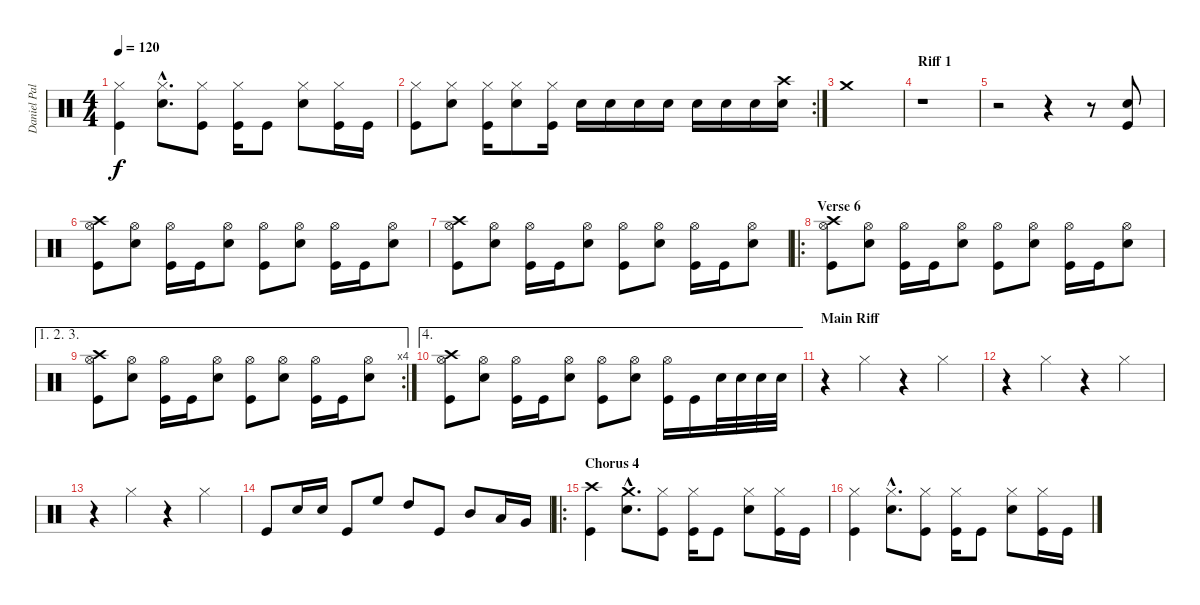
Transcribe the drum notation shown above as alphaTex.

\track ("Daniel Pal" "Daniel Pal") {instrument percussion}
\staff {score}
\articulation defaults
\ts (4 4)
\tempo 120
\clef neutral
\ks c
("Hi-Hat (closed)" "Kick (hit)").4{dy f} ("Hi-Hat (closed)"{hac} "Electric Snare (hit)"{hac}).8{d} ("Hi-Hat (closed)" "Kick (hit)").8 ("Hi-Hat (closed)" "Kick (hit)").16 "Kick (hit)".8 ("Hi-Hat (closed)" "Electric Snare (hit)").8 ("Hi-Hat (closed)" "Kick (hit)").16 "Kick (hit)".16 |
\rc 2
("Hi-Hat (closed)" "Kick (hit)").8 ("Hi-Hat (closed)" "Electric Snare (hit)").8 ("Hi-Hat (closed)" "Kick (hit)").16 ("Hi-Hat (closed)" "Electric Snare (hit)").8 ("Hi-Hat (closed)" "Kick (hit)").16 "Electric Snare (hit)".16 "Electric Snare (hit)".16 "Electric Snare (hit)".16 "Electric Snare (hit)".16 "Electric Snare (hit)".16 "Electric Snare (hit)".16 "Electric Snare (hit)".16 ("Crash high (hit)" "Electric Snare (hit)").16 |
"Crash medium (hit)".1 |
\section ("" "Riff 1")
r.1 |
r.2 r.4 r.8 ("Electric Snare (hit)" "Kick (hit)").8 |
("Crash high (hit)" "Hi-Hat (open)" "Kick (hit)").8 ("Hi-Hat (open)" "Electric Snare (hit)").8 ("Hi-Hat (open)" "Kick (hit)").16 "Kick (hit)".16 ("Hi-Hat (open)" "Electric Snare (hit)").8 ("Hi-Hat (open)" "Kick (hit)").8 ("Hi-Hat (open)" "Electric Snare (hit)").8 ("Hi-Hat (open)" "Kick (hit)").16 "Kick (hit)".16 ("Hi-Hat (open)" "Electric Snare (hit)").8 |
("Crash high (hit)" "Hi-Hat (open)" "Kick (hit)").8 ("Hi-Hat (open)" "Electric Snare (hit)").8 ("Hi-Hat (open)" "Kick (hit)").16 "Kick (hit)".16 ("Hi-Hat (open)" "Electric Snare (hit)").8 ("Hi-Hat (open)" "Kick (hit)").8 ("Hi-Hat (open)" "Electric Snare (hit)").8 ("Hi-Hat (open)" "Kick (hit)").16 "Kick (hit)".16 ("Hi-Hat (open)" "Electric Snare (hit)").8 |
\ro
\section ("" "Verse 6")
("Crash high (hit)" "Hi-Hat (open)" "Kick (hit)").8 ("Hi-Hat (open)" "Electric Snare (hit)").8 ("Hi-Hat (open)" "Kick (hit)").16 "Kick (hit)".16 ("Hi-Hat (open)" "Electric Snare (hit)").8 ("Hi-Hat (open)" "Kick (hit)").8 ("Hi-Hat (open)" "Electric Snare (hit)").8 ("Hi-Hat (open)" "Kick (hit)").16 "Kick (hit)".16 ("Hi-Hat (open)" "Electric Snare (hit)").8 |
\ae (1 2 3)
\rc 4
("Crash high (hit)" "Hi-Hat (open)" "Kick (hit)").8 ("Hi-Hat (open)" "Electric Snare (hit)").8 ("Hi-Hat (open)" "Kick (hit)").16 "Kick (hit)".16 ("Hi-Hat (open)" "Electric Snare (hit)").8 ("Hi-Hat (open)" "Kick (hit)").8 ("Hi-Hat (open)" "Electric Snare (hit)").8 ("Hi-Hat (open)" "Kick (hit)").16 "Kick (hit)".16 ("Hi-Hat (open)" "Electric Snare (hit)").8 |
\ae 4
("Crash high (hit)" "Hi-Hat (open)" "Kick (hit)").8 ("Hi-Hat (open)" "Electric Snare (hit)").8 ("Hi-Hat (open)" "Kick (hit)").16 "Kick (hit)".16 ("Hi-Hat (open)" "Electric Snare (hit)").8 ("Hi-Hat (open)" "Kick (hit)").8 ("Hi-Hat (open)" "Electric Snare (hit)").8 ("Hi-Hat (open)" "Kick (hit)").16 "Kick (hit)".16 "Electric Snare (hit)".32 "Electric Snare (hit)".32 "Electric Snare (hit)".32 "Electric Snare (hit)".32 |
\section ("" "Main Riff")
r.4 "Hi-Hat (closed)".4 r.4 "Hi-Hat (closed)".4 |
r.4 "Hi-Hat (closed)".4 r.4 "Hi-Hat (closed)".4 |
r.4 "Hi-Hat (closed)".4 r.4 "Hi-Hat (closed)".4 |
"Kick (hit)".8 "Electric Snare (hit)".16 "Electric Snare (hit)".16 "Kick (hit)".8 "High Floor Tom (hit)".8 "High Tom (hit)".8 "Kick (hit)".8 "Mid Tom (hit)".8 "Low Tom (hit)".16 "Very Low Tom (hit)".16 |
\ro
\section ("" "Chorus 4")
("Crash high (hit)" "Kick (hit)").4 ("Crash medium (hit)"{hac} "Electric Snare (hit)"{hac}).8{d} ("Hi-Hat (closed)" "Kick (hit)").8 ("Hi-Hat (closed)" "Kick (hit)").16 "Kick (hit)".8 ("Hi-Hat (closed)" "Electric Snare (hit)").8 ("Hi-Hat (closed)" "Kick (hit)").16 "Kick (hit)".16 |
("Hi-Hat (closed)" "Kick (hit)").4 ("Hi-Hat (closed)"{hac} "Electric Snare (hit)"{hac}).8{d} ("Hi-Hat (closed)" "Kick (hit)").8 ("Hi-Hat (closed)" "Kick (hit)").16 "Kick (hit)".8 ("Hi-Hat (closed)" "Electric Snare (hit)").8 ("Hi-Hat (closed)" "Kick (hit)").16 "Kick (hit)".16
